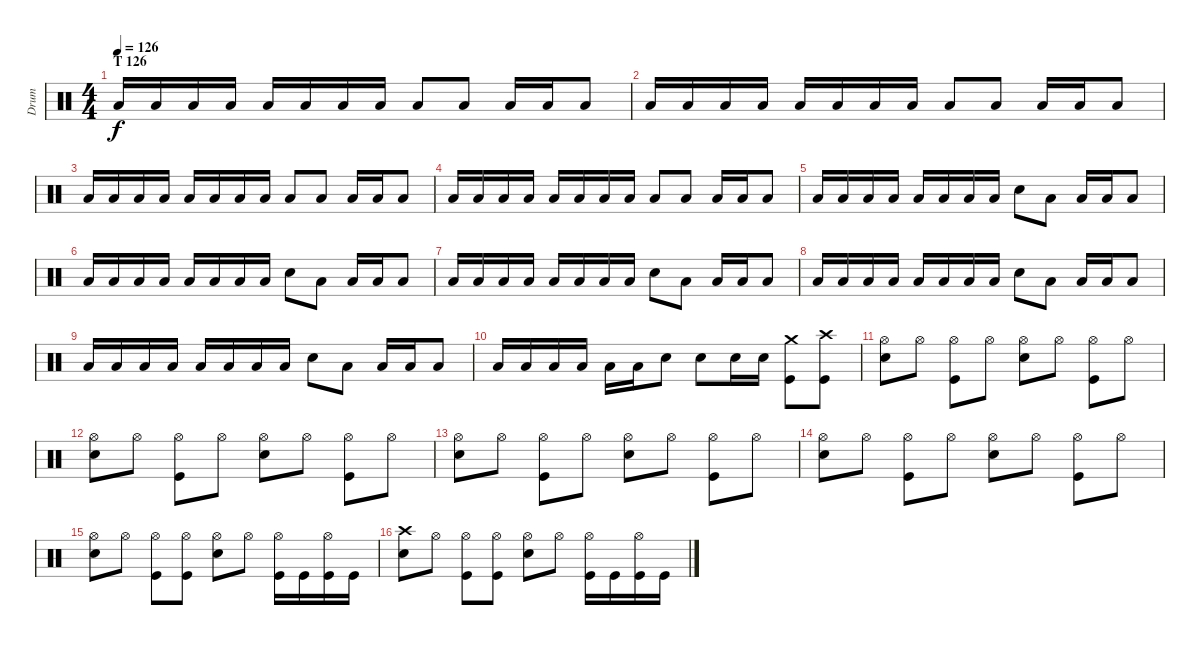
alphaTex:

\track ("Drum" "Drum") {instrument percussion}
\staff {score}
\articulation defaults
\ts (4 4)
\section ("" "T 126")
\tempo 126
\clef neutral
\ks c "Low Tom (hit)".16{dy f} "Low Tom (hit)".16 "Low Tom (hit)".16 "Low Tom (hit)".16 "Low Tom (hit)".16 "Low Tom (hit)".16 "Low Tom (hit)".16 "Low Tom (hit)".16 "Low Tom (hit)".8 "Low Tom (hit)".8 "Low Tom (hit)".16 "Low Tom (hit)".16 "Low Tom (hit)".8
|
"Low Tom (hit)".16 "Low Tom (hit)".16 "Low Tom (hit)".16 "Low Tom (hit)".16 "Low Tom (hit)".16 "Low Tom (hit)".16 "Low Tom (hit)".16 "Low Tom (hit)".16 "Low Tom (hit)".8 "Low Tom (hit)".8 "Low Tom (hit)".16 "Low Tom (hit)".16 "Low Tom (hit)".8 |
"Low Tom (hit)".16 "Low Tom (hit)".16 "Low Tom (hit)".16 "Low Tom (hit)".16 "Low Tom (hit)".16 "Low Tom (hit)".16 "Low Tom (hit)".16 "Low Tom (hit)".16 "Low Tom (hit)".8 "Low Tom (hit)".8 "Low Tom (hit)".16 "Low Tom (hit)".16 "Low Tom (hit)".8 |
"Low Tom (hit)".16 "Low Tom (hit)".16 "Low Tom (hit)".16 "Low Tom (hit)".16 "Low Tom (hit)".16 "Low Tom (hit)".16 "Low Tom (hit)".16 "Low Tom (hit)".16 "Low Tom (hit)".8 "Low Tom (hit)".8 "Low Tom (hit)".16 "Low Tom (hit)".16 "Low Tom (hit)".8 |
"Low Tom (hit)".16 "Low Tom (hit)".16 "Low Tom (hit)".16 "Low Tom (hit)".16 "Low Tom (hit)".16 "Low Tom (hit)".16 "Low Tom (hit)".16 "Low Tom (hit)".16 "Snare (hit) 2".8 "Low Tom (hit)".8 "Low Tom (hit)".16 "Low Tom (hit)".16 "Low Tom (hit)".8 |
"Low Tom (hit)".16 "Low Tom (hit)".16 "Low Tom (hit)".16 "Low Tom (hit)".16 "Low Tom (hit)".16 "Low Tom (hit)".16 "Low Tom (hit)".16 "Low Tom (hit)".16 "Snare (hit) 2".8 "Low Tom (hit)".8 "Low Tom (hit)".16 "Low Tom (hit)".16 "Low Tom (hit)".8 |
"Low Tom (hit)".16 "Low Tom (hit)".16 "Low Tom (hit)".16 "Low Tom (hit)".16 "Low Tom (hit)".16 "Low Tom (hit)".16 "Low Tom (hit)".16 "Low Tom (hit)".16 "Snare (hit) 2".8 "Low Tom (hit)".8 "Low Tom (hit)".16 "Low Tom (hit)".16 "Low Tom (hit)".8 |
"Low Tom (hit)".16 "Low Tom (hit)".16 "Low Tom (hit)".16 "Low Tom (hit)".16 "Low Tom (hit)".16 "Low Tom (hit)".16 "Low Tom (hit)".16 "Low Tom (hit)".16 "Snare (hit) 2".8 "Low Tom (hit)".8 "Low Tom (hit)".16 "Low Tom (hit)".16 "Low Tom (hit)".8 |
"Low Tom (hit)".16 "Low Tom (hit)".16 "Low Tom (hit)".16 "Low Tom (hit)".16 "Low Tom (hit)".16 "Low Tom (hit)".16 "Low Tom (hit)".16 "Low Tom (hit)".16 "Snare (hit) 2".8 "Low Tom (hit)".8 "Low Tom (hit)".16 "Low Tom (hit)".16 "Low Tom (hit)".8 |
"Low Tom (hit)".16 "Low Tom (hit)".16 "Low Tom (hit)".16 "Low Tom (hit)".16 "Low Tom (hit)".16 "Low Tom (hit)".16 "Snare (hit) 2".8 "Snare (hit) 2".8 "Snare (hit) 2".16 "Snare (hit) 2".16 ("Crash medium (hit)" "Kick (hit)").8 ("Crash high (hit)" "Kick (hit)").8 |
("Hi-Hat (open)" "Snare (hit) 2").8 "Hi-Hat (open)".8 ("Hi-Hat (open)" "Kick (hit)").8 "Hi-Hat (open)".8 ("Hi-Hat (open)" "Snare (hit) 2").8 "Hi-Hat (open)".8 ("Hi-Hat (open)" "Kick (hit)").8 "Hi-Hat (open)".8 |
("Hi-Hat (open)" "Snare (hit) 2").8 "Hi-Hat (open)".8 ("Hi-Hat (open)" "Kick (hit)").8 "Hi-Hat (open)".8 ("Hi-Hat (open)" "Snare (hit) 2").8 "Hi-Hat (open)".8 ("Hi-Hat (open)" "Kick (hit)").8 "Hi-Hat (open)".8 |
("Hi-Hat (open)" "Snare (hit) 2").8 "Hi-Hat (open)".8 ("Hi-Hat (open)" "Kick (hit)").8 "Hi-Hat (open)".8 ("Hi-Hat (open)" "Snare (hit) 2").8 "Hi-Hat (open)".8 ("Hi-Hat (open)" "Kick (hit)").8 "Hi-Hat (open)".8 |
("Hi-Hat (open)" "Snare (hit) 2").8 "Hi-Hat (open)".8 ("Hi-Hat (open)" "Kick (hit)").8 "Hi-Hat (open)".8 ("Hi-Hat (open)" "Snare (hit) 2").8 "Hi-Hat (open)".8 ("Hi-Hat (open)" "Kick (hit)").8 "Hi-Hat (open)".8 |
("Hi-Hat (open)" "Snare (hit) 2").8 "Hi-Hat (open)".8 ("Hi-Hat (open)" "Kick (hit)").8 ("Hi-Hat (open)" "Kick (hit)").8 ("Hi-Hat (open)" "Snare (hit) 2").8 "Hi-Hat (open)".8 ("Hi-Hat (open)" "Kick (hit)").16 "Kick (hit)".16 ("Hi-Hat (open)" "Kick (hit)").16 "Kick (hit)".16 |
("Crash high (hit)" "Snare (hit) 2").8 "Hi-Hat (open)".8 ("Hi-Hat (open)" "Kick (hit)").8 ("Hi-Hat (open)" "Kick (hit)").8 ("Hi-Hat (open)" "Snare (hit) 2").8 "Hi-Hat (open)".8 ("Hi-Hat (open)" "Kick (hit)").16 "Kick (hit)".16 ("Hi-Hat (open)" "Kick (hit)").16 "Kick (hit)".16
